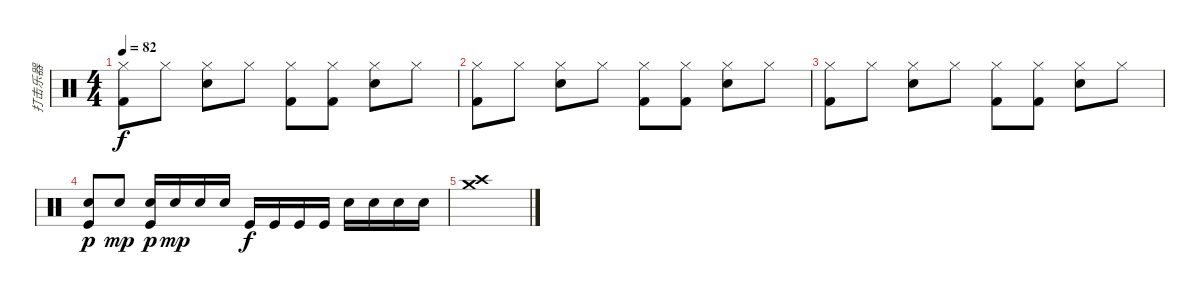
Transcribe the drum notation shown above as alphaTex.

\track ("打击乐器" "打击乐器") {instrument percussion}
\staff {score}
\articulation defaults
\ts (4 4)
\tempo 82
\clef neutral
\ks c
("Kick (hit) 2" "Hi-Hat (closed)").8{dy f} "Hi-Hat (closed)".8 ("Snare (hit) 2" "Hi-Hat (closed)").8 "Hi-Hat (closed)".8 ("Kick (hit) 2" "Hi-Hat (closed)").8 ("Kick (hit) 2" "Hi-Hat (closed)").8 ("Snare (hit) 2" "Hi-Hat (closed)").8 "Hi-Hat (closed)".8 |
("Kick (hit) 2" "Hi-Hat (closed)").8 "Hi-Hat (closed)".8 ("Snare (hit) 2" "Hi-Hat (closed)").8 "Hi-Hat (closed)".8 ("Kick (hit) 2" "Hi-Hat (closed)").8 ("Kick (hit) 2" "Hi-Hat (closed)").8 ("Snare (hit) 2" "Hi-Hat (closed)").8 "Hi-Hat (closed)".8 |
("Kick (hit) 2" "Hi-Hat (closed)").8 "Hi-Hat (closed)".8 ("Snare (hit) 2" "Hi-Hat (closed)").8 "Hi-Hat (closed)".8 ("Kick (hit) 2" "Hi-Hat (closed)").8 ("Kick (hit) 2" "Hi-Hat (closed)").8 ("Snare (hit) 2" "Hi-Hat (closed)").8 "Hi-Hat (closed)".8 |
("Electric Snare (hit)" "Kick (hit)").8{dy p} "Electric Snare (hit)".8{dy mp} ("Electric Snare (hit)" "Kick (hit)").16{dy p} "Electric Snare (hit)".16{dy mp} "Electric Snare (hit)".16 "Electric Snare (hit)".16 "Kick (hit)".16{dy f} "Kick (hit)".16 "Kick (hit)".16 "Kick (hit)".16 "Electric Snare (hit)".16 "Electric Snare (hit)".16 "Electric Snare (hit)".16 "Electric Snare (hit)".16 |
("Crash high (hit)" "Crash medium (hit)").1
